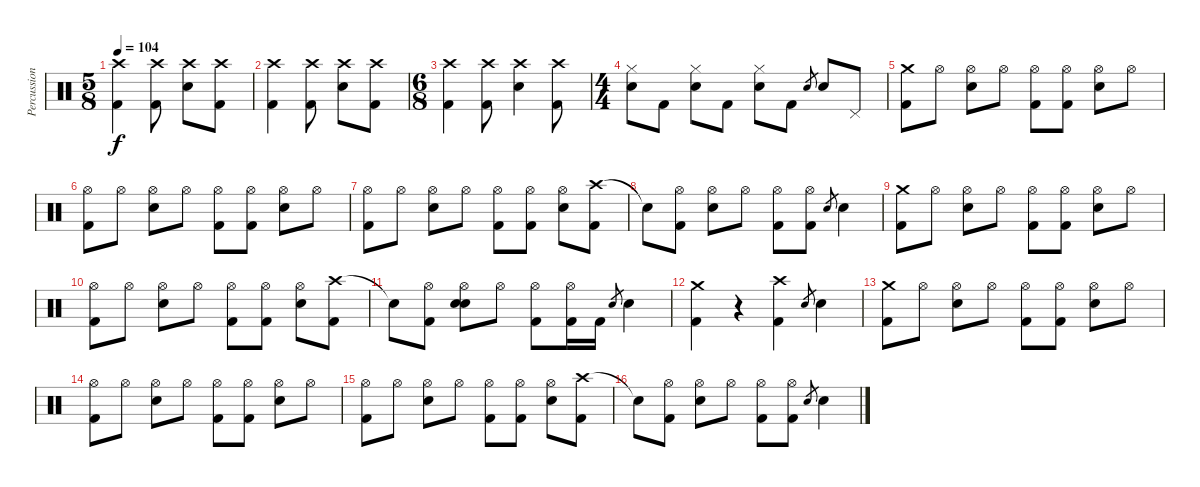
\track ("Percussion" "Percussion") {instrument percussion}
\staff {score}
\articulation defaults
\ts (5 8)
\tempo 104
\clef neutral
\ks c
("Crash high (hit)" "Kick (hit) 2").4{dy f} ("Crash high (hit)" "Kick (hit) 2").8 ("Crash high (hit)" "Snare (hit) 2").8 ("Crash high (hit)" "Kick (hit) 2").8 |
("Crash high (hit)" "Kick (hit) 2").4 ("Crash high (hit)" "Kick (hit) 2").8 ("Crash high (hit)" "Snare (hit) 2").8 ("Crash high (hit)" "Kick (hit) 2").8 |
\ts (6 8)
("Crash high (hit)" "Kick (hit) 2").4 ("Crash high (hit)" "Kick (hit) 2").8 ("Crash high (hit)" "Snare (hit) 2").4 ("Crash high (hit)" "Kick (hit) 2").8 |
\ts (4 4)
("Hi-Hat (closed)" "Snare (hit) 2").8 "Kick (hit) 2".8 ("Hi-Hat (closed)" "Snare (hit) 2").8 "Kick (hit) 2".8 ("Hi-Hat (closed)" "Snare (hit) 2").8 "Kick (hit) 2".8 "Snare (hit) 2".8{gr} "Snare (hit) 2".8 "Pedal Hi-Hat (hit)".8 |
("Crash medium (hit)" "Kick (hit) 2").8 "Hi-Hat (open)".8 ("Hi-Hat (open)" "Snare (hit) 2").8 "Hi-Hat (open)".8 ("Hi-Hat (open)" "Kick (hit) 2").8 ("Hi-Hat (open)" "Kick (hit) 2").8 ("Hi-Hat (open)" "Snare (hit) 2").8 "Hi-Hat (open)".8 |
("Hi-Hat (open)" "Kick (hit) 2").8 "Hi-Hat (open)".8 ("Hi-Hat (open)" "Snare (hit) 2").8 "Hi-Hat (open)".8 ("Hi-Hat (open)" "Kick (hit) 2").8 ("Hi-Hat (open)" "Kick (hit) 2").8 ("Hi-Hat (open)" "Snare (hit) 2").8 "Hi-Hat (open)".8 |
("Hi-Hat (open)" "Kick (hit) 2").8 "Hi-Hat (open)".8 ("Hi-Hat (open)" "Snare (hit) 2").8 "Hi-Hat (open)".8 ("Hi-Hat (open)" "Kick (hit) 2").8 ("Hi-Hat (open)" "Kick (hit) 2").8 ("Hi-Hat (open)" "Snare (hit) 2").8 ("Crash high (hit)" "Kick (hit) 2").8 |
"Snare (hit)"{t}.8 ("Hi-Hat (open)" "Kick (hit) 2").8 ("Hi-Hat (open)" "Snare (hit) 2").8 "Hi-Hat (open)".8 ("Hi-Hat (open)" "Kick (hit) 2").8 ("Hi-Hat (open)" "Kick (hit) 2").8 "Snare (hit) 2".8{gr} "Snare (hit) 2".4 |
("Crash medium (hit)" "Kick (hit) 2").8 "Hi-Hat (open)".8 ("Hi-Hat (open)" "Snare (hit) 2").8 "Hi-Hat (open)".8 ("Hi-Hat (open)" "Kick (hit) 2").8 ("Hi-Hat (open)" "Kick (hit) 2").8 ("Hi-Hat (open)" "Snare (hit) 2").8 "Hi-Hat (open)".8 |
("Hi-Hat (open)" "Kick (hit) 2").8 "Hi-Hat (open)".8 ("Hi-Hat (open)" "Snare (hit) 2").8 "Hi-Hat (open)".8 ("Hi-Hat (open)" "Kick (hit) 2").8 ("Hi-Hat (open)" "Kick (hit) 2").8 ("Hi-Hat (open)" "Snare (hit) 2").8 ("Crash high (hit)" "Kick (hit) 2").8 |
"Snare (hit)"{t}.8 ("Hi-Hat (open)" "Kick (hit) 2").8 ("Hi-Hat (open)" "Electric Snare (hit)" "Snare (hit) 2").8 "Hi-Hat (open)".8 ("Hi-Hat (open)" "Kick (hit) 2").8 ("Hi-Hat (open)" "Kick (hit) 2").16 "Kick (hit) 2".16 "Snare (hit) 2".8{gr} "Snare (hit) 2".4 |
("Crash medium (hit)" "Kick (hit) 2").4 r.4 ("Crash high (hit)" "Kick (hit) 2").4 "Snare (hit) 2".8{gr} "Snare (hit) 2".4 |
("Crash medium (hit)" "Kick (hit) 2").8 "Hi-Hat (open)".8 ("Hi-Hat (open)" "Snare (hit) 2").8 "Hi-Hat (open)".8 ("Hi-Hat (open)" "Kick (hit) 2").8 ("Hi-Hat (open)" "Kick (hit) 2").8 ("Hi-Hat (open)" "Snare (hit) 2").8 "Hi-Hat (open)".8 |
("Hi-Hat (open)" "Kick (hit) 2").8 "Hi-Hat (open)".8 ("Hi-Hat (open)" "Snare (hit) 2").8 "Hi-Hat (open)".8 ("Hi-Hat (open)" "Kick (hit) 2").8 ("Hi-Hat (open)" "Kick (hit) 2").8 ("Hi-Hat (open)" "Snare (hit) 2").8 "Hi-Hat (open)".8 |
("Hi-Hat (open)" "Kick (hit) 2").8 "Hi-Hat (open)".8 ("Hi-Hat (open)" "Snare (hit) 2").8 "Hi-Hat (open)".8 ("Hi-Hat (open)" "Kick (hit) 2").8 ("Hi-Hat (open)" "Kick (hit) 2").8 ("Hi-Hat (open)" "Snare (hit) 2").8 ("Crash high (hit)" "Kick (hit) 2").8 |
"Snare (hit)"{t}.8 ("Hi-Hat (open)" "Kick (hit) 2").8 ("Hi-Hat (open)" "Snare (hit) 2").8 "Hi-Hat (open)".8 ("Hi-Hat (open)" "Kick (hit) 2").8 ("Hi-Hat (open)" "Kick (hit) 2").8 "Snare (hit) 2".8{gr} "Snare (hit) 2".4
